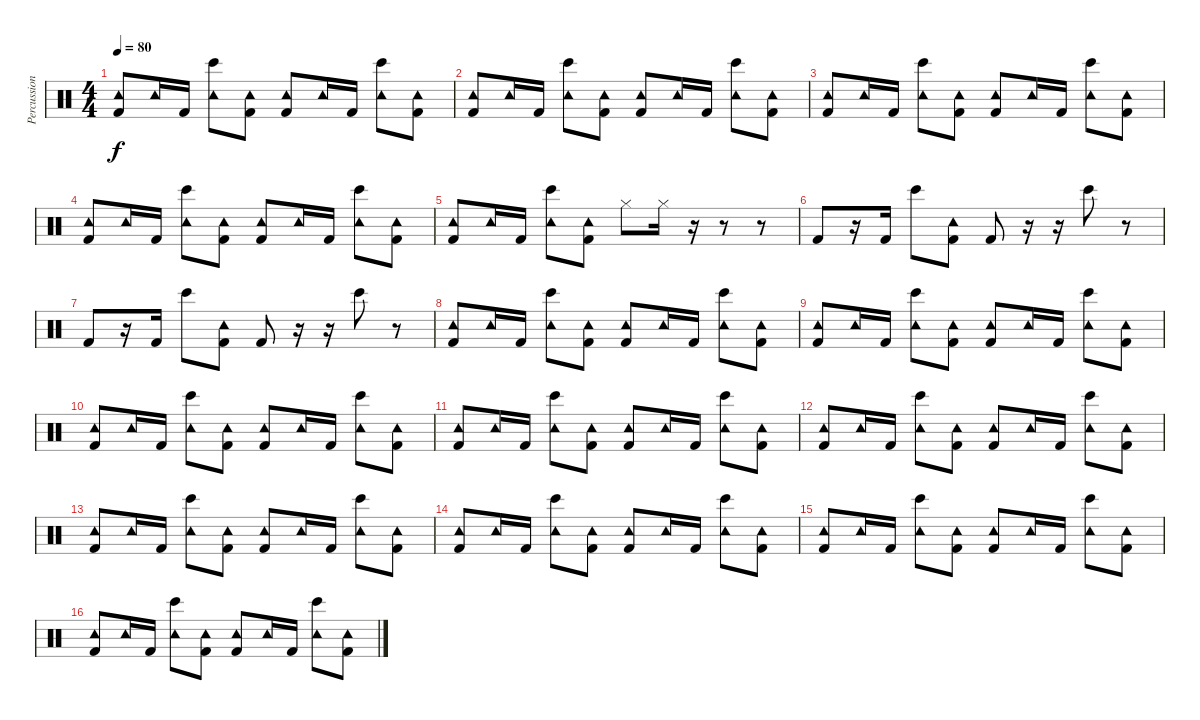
\track ("Percussion" "Percussion") {instrument percussion}
\staff {score}
\articulation defaults
\ts (4 4)
\tempo 80
\clef neutral
\ks c
("Kick (hit) 2" "Tambourine (hit)").8{dy f} "Tambourine (hit)".16 "Kick (hit) 2".16 ("Bongo High (hit)" "Tambourine (hit)").8 ("Kick (hit) 2" "Tambourine (hit)").8 ("Kick (hit) 2" "Tambourine (hit)").8 "Tambourine (hit)".16 "Kick (hit) 2".16 ("Bongo High (hit)" "Tambourine (hit)").8 ("Kick (hit) 2" "Tambourine (hit)").8 |
("Kick (hit) 2" "Tambourine (hit)").8 "Tambourine (hit)".16 "Kick (hit) 2".16 ("Bongo High (hit)" "Tambourine (hit)").8 ("Kick (hit) 2" "Tambourine (hit)").8 ("Kick (hit) 2" "Tambourine (hit)").8 "Tambourine (hit)".16 "Kick (hit) 2".16 ("Bongo High (hit)" "Tambourine (hit)").8 ("Kick (hit) 2" "Tambourine (hit)").8 |
("Kick (hit) 2" "Tambourine (hit)").8 "Tambourine (hit)".16 "Kick (hit) 2".16 ("Bongo High (hit)" "Tambourine (hit)").8 ("Kick (hit) 2" "Tambourine (hit)").8 ("Kick (hit) 2" "Tambourine (hit)").8 "Tambourine (hit)".16 "Kick (hit) 2".16 ("Bongo High (hit)" "Tambourine (hit)").8 ("Kick (hit) 2" "Tambourine (hit)").8 |
("Kick (hit) 2" "Tambourine (hit)").8 "Tambourine (hit)".16 "Kick (hit) 2".16 ("Bongo High (hit)" "Tambourine (hit)").8 ("Kick (hit) 2" "Tambourine (hit)").8 ("Kick (hit) 2" "Tambourine (hit)").8 "Tambourine (hit)".16 "Kick (hit) 2".16 ("Bongo High (hit)" "Tambourine (hit)").8 ("Kick (hit) 2" "Tambourine (hit)").8 |
("Kick (hit) 2" "Tambourine (hit)").8 "Tambourine (hit)".16 "Kick (hit) 2".16 ("Bongo High (hit)" "Tambourine (hit)").8 ("Kick (hit) 2" "Tambourine (hit)").8 "Hi-Hat (closed)".8 "Hi-Hat (closed)".16 r.16 r.8 r.8 |
"Kick (hit) 2".8 r.16 "Kick (hit) 2".16 "Bongo High (hit)".8 ("Kick (hit) 2" "Tambourine (hit)").8 "Kick (hit) 2".8 r.16 r.16 "Bongo High (hit)".8 r.8 |
"Kick (hit) 2".8 r.16 "Kick (hit) 2".16 "Bongo High (hit)".8 ("Kick (hit) 2" "Tambourine (hit)").8 "Kick (hit) 2".8 r.16 r.16 "Bongo High (hit)".8 r.8 |
("Kick (hit) 2" "Tambourine (hit)").8 "Tambourine (hit)".16 "Kick (hit) 2".16 ("Bongo High (hit)" "Tambourine (hit)").8 ("Kick (hit) 2" "Tambourine (hit)").8 ("Kick (hit) 2" "Tambourine (hit)").8 "Tambourine (hit)".16 "Kick (hit) 2".16 ("Bongo High (hit)" "Tambourine (hit)").8 ("Kick (hit) 2" "Tambourine (hit)").8 |
("Kick (hit) 2" "Tambourine (hit)").8 "Tambourine (hit)".16 "Kick (hit) 2".16 ("Bongo High (hit)" "Tambourine (hit)").8 ("Kick (hit) 2" "Tambourine (hit)").8 ("Kick (hit) 2" "Tambourine (hit)").8 "Tambourine (hit)".16 "Kick (hit) 2".16 ("Bongo High (hit)" "Tambourine (hit)").8 ("Kick (hit) 2" "Tambourine (hit)").8 |
("Kick (hit) 2" "Tambourine (hit)").8 "Tambourine (hit)".16 "Kick (hit) 2".16 ("Bongo High (hit)" "Tambourine (hit)").8 ("Kick (hit) 2" "Tambourine (hit)").8 ("Kick (hit) 2" "Tambourine (hit)").8 "Tambourine (hit)".16 "Kick (hit) 2".16 ("Bongo High (hit)" "Tambourine (hit)").8 ("Kick (hit) 2" "Tambourine (hit)").8 |
("Kick (hit) 2" "Tambourine (hit)").8 "Tambourine (hit)".16 "Kick (hit) 2".16 ("Bongo High (hit)" "Tambourine (hit)").8 ("Kick (hit) 2" "Tambourine (hit)").8 ("Kick (hit) 2" "Tambourine (hit)").8 "Tambourine (hit)".16 "Kick (hit) 2".16 ("Bongo High (hit)" "Tambourine (hit)").8 ("Kick (hit) 2" "Tambourine (hit)").8 |
("Kick (hit) 2" "Tambourine (hit)").8 "Tambourine (hit)".16 "Kick (hit) 2".16 ("Bongo High (hit)" "Tambourine (hit)").8 ("Kick (hit) 2" "Tambourine (hit)").8 ("Kick (hit) 2" "Tambourine (hit)").8 "Tambourine (hit)".16 "Kick (hit) 2".16 ("Bongo High (hit)" "Tambourine (hit)").8 ("Kick (hit) 2" "Tambourine (hit)").8 |
("Kick (hit) 2" "Tambourine (hit)").8 "Tambourine (hit)".16 "Kick (hit) 2".16 ("Bongo High (hit)" "Tambourine (hit)").8 ("Kick (hit) 2" "Tambourine (hit)").8 ("Kick (hit) 2" "Tambourine (hit)").8 "Tambourine (hit)".16 "Kick (hit) 2".16 ("Bongo High (hit)" "Tambourine (hit)").8 ("Kick (hit) 2" "Tambourine (hit)").8 |
("Kick (hit) 2" "Tambourine (hit)").8 "Tambourine (hit)".16 "Kick (hit) 2".16 ("Bongo High (hit)" "Tambourine (hit)").8 ("Kick (hit) 2" "Tambourine (hit)").8 ("Kick (hit) 2" "Tambourine (hit)").8 "Tambourine (hit)".16 "Kick (hit) 2".16 ("Bongo High (hit)" "Tambourine (hit)").8 ("Kick (hit) 2" "Tambourine (hit)").8 |
("Kick (hit) 2" "Tambourine (hit)").8 "Tambourine (hit)".16 "Kick (hit) 2".16 ("Bongo High (hit)" "Tambourine (hit)").8 ("Kick (hit) 2" "Tambourine (hit)").8 ("Kick (hit) 2" "Tambourine (hit)").8 "Tambourine (hit)".16 "Kick (hit) 2".16 ("Bongo High (hit)" "Tambourine (hit)").8 ("Kick (hit) 2" "Tambourine (hit)").8 |
("Kick (hit) 2" "Tambourine (hit)").8 "Tambourine (hit)".16 "Kick (hit) 2".16 ("Bongo High (hit)" "Tambourine (hit)").8 ("Kick (hit) 2" "Tambourine (hit)").8 ("Kick (hit) 2" "Tambourine (hit)").8 "Tambourine (hit)".16 "Kick (hit) 2".16 ("Bongo High (hit)" "Tambourine (hit)").8 ("Kick (hit) 2" "Tambourine (hit)").8
